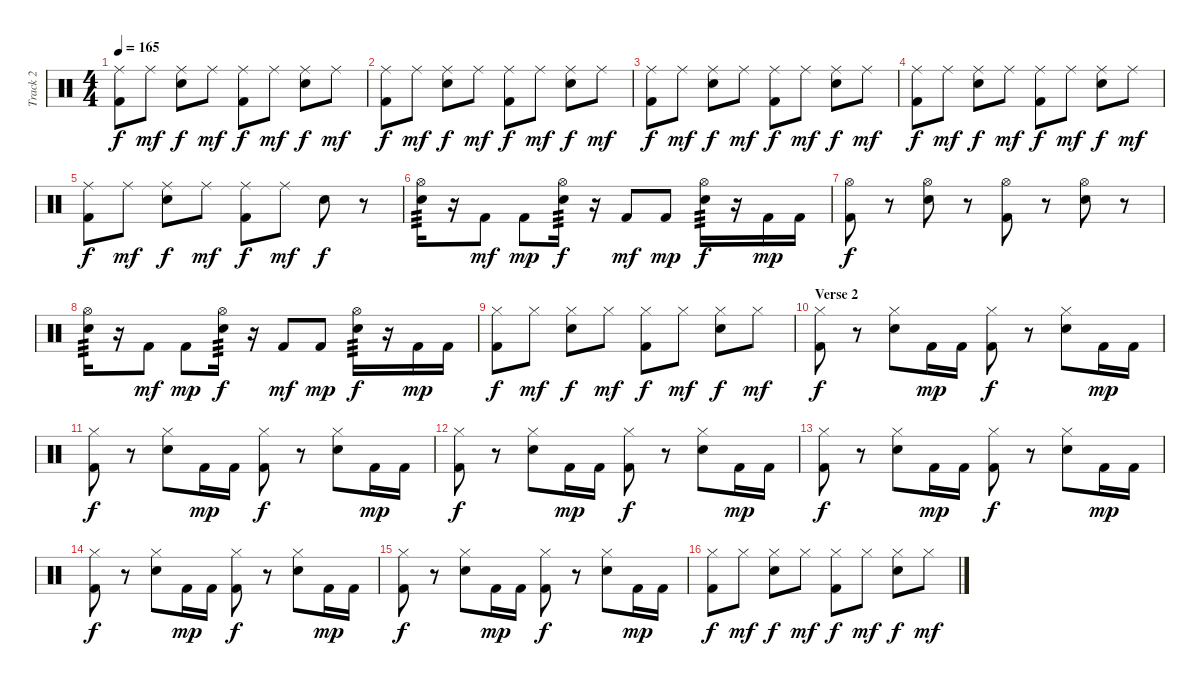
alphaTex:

\track ("Track 2" "Track 2") {instrument percussion}
\staff {score}
\articulation defaults
\ts (4 4)
\tempo 165
\clef neutral
\ks c
("Ride (middle)" "Kick (hit) 2").8{dy f} "Ride (middle)".8{dy mf} ("Ride (middle)" "Electric Snare (hit)").8{dy f} "Ride (middle)".8{dy mf} ("Ride (middle)" "Kick (hit) 2").8{dy f} "Ride (middle)".8{dy mf} ("Ride (middle)" "Electric Snare (hit)").8{dy f} "Ride (middle)".8{dy mf} |
("Ride (middle)" "Kick (hit) 2").8{dy f} "Ride (middle)".8{dy mf} ("Ride (middle)" "Electric Snare (hit)").8{dy f} "Ride (middle)".8{dy mf} ("Ride (middle)" "Kick (hit) 2").8{dy f} "Ride (middle)".8{dy mf} ("Ride (middle)" "Electric Snare (hit)").8{dy f} "Ride (middle)".8{dy mf} |
("Ride (middle)" "Kick (hit) 2").8{dy f} "Ride (middle)".8{dy mf} ("Ride (middle)" "Electric Snare (hit)").8{dy f} "Ride (middle)".8{dy mf} ("Ride (middle)" "Kick (hit) 2").8{dy f} "Ride (middle)".8{dy mf} ("Ride (middle)" "Electric Snare (hit)").8{dy f} "Ride (middle)".8{dy mf} |
("Ride (middle)" "Kick (hit) 2").8{dy f} "Ride (middle)".8{dy mf} ("Ride (middle)" "Electric Snare (hit)").8{dy f} "Ride (middle)".8{dy mf} ("Ride (middle)" "Kick (hit) 2").8{dy f} "Ride (middle)".8{dy mf} ("Ride (middle)" "Electric Snare (hit)").8{dy f} "Ride (middle)".8{dy mf} |
("Ride (middle)" "Kick (hit) 2").8{dy f} "Ride (middle)".8{dy mf} ("Ride (middle)" "Electric Snare (hit)").8{dy f} "Ride (middle)".8{dy mf} ("Ride (middle)" "Kick (hit) 2").8{dy f} "Ride (middle)".8{dy mf} "Electric Snare (hit)".8{dy f} r.8 |
("Hi-Hat (open)" "Electric Snare (hit)").16{tp 3} r.16 "Kick (hit) 2".8{dy mf} "Kick (hit) 2".8{dy mp} ("Hi-Hat (open)" "Electric Snare (hit)").16{tp 3 dy f} r.16 "Kick (hit) 2".8{dy mf} "Kick (hit) 2".8{dy mp} ("Hi-Hat (open)" "Electric Snare (hit)").16{tp 3 dy f} r.16 "Kick (hit) 2".16{dy mp} "Kick (hit) 2".16 |
("Hi-Hat (open)" "Kick (hit) 2").8{dy f} r.8 ("Hi-Hat (open)" "Electric Snare (hit)").8 r.8 ("Hi-Hat (open)" "Kick (hit) 2").8 r.8 ("Hi-Hat (open)" "Electric Snare (hit)").8 r.8 |
("Hi-Hat (open)" "Electric Snare (hit)").16{tp 3} r.16 "Kick (hit) 2".8{dy mf} "Kick (hit) 2".8{dy mp} ("Hi-Hat (open)" "Electric Snare (hit)").16{tp 3 dy f} r.16 "Kick (hit) 2".8{dy mf} "Kick (hit) 2".8{dy mp} ("Hi-Hat (open)" "Electric Snare (hit)").16{tp 3 dy f} r.16 "Kick (hit) 2".16{dy mp} "Kick (hit) 2".16 |
("Hi-Hat (closed)" "Kick (hit) 2").8{dy f} "Hi-Hat (closed)".8{dy mf} ("Hi-Hat (closed)" "Electric Snare (hit)").8{dy f} "Hi-Hat (closed)".8{dy mf} ("Hi-Hat (closed)" "Kick (hit) 2").8{dy f} "Hi-Hat (closed)".8{dy mf} ("Hi-Hat (closed)" "Electric Snare (hit)").8{dy f} "Hi-Hat (closed)".8{dy mf} |
\section ("" "Verse 2")
("Hi-Hat (closed)" "Kick (hit) 2").8{dy f} r.8 ("Hi-Hat (closed)" "Electric Snare (hit)").8 "Kick (hit) 2".16{dy mp} "Kick (hit) 2".16 ("Hi-Hat (closed)" "Kick (hit) 2").8{dy f} r.8 ("Hi-Hat (closed)" "Electric Snare (hit)").8 "Kick (hit) 2".16{dy mp} "Kick (hit) 2".16 |
("Hi-Hat (closed)" "Kick (hit) 2").8{dy f} r.8 ("Hi-Hat (closed)" "Electric Snare (hit)").8 "Kick (hit) 2".16{dy mp} "Kick (hit) 2".16 ("Hi-Hat (closed)" "Kick (hit) 2").8{dy f} r.8 ("Hi-Hat (closed)" "Electric Snare (hit)").8 "Kick (hit) 2".16{dy mp} "Kick (hit) 2".16 |
("Hi-Hat (closed)" "Kick (hit) 2").8{dy f} r.8 ("Hi-Hat (closed)" "Electric Snare (hit)").8 "Kick (hit) 2".16{dy mp} "Kick (hit) 2".16 ("Hi-Hat (closed)" "Kick (hit) 2").8{dy f} r.8 ("Hi-Hat (closed)" "Electric Snare (hit)").8 "Kick (hit) 2".16{dy mp} "Kick (hit) 2".16 |
("Hi-Hat (closed)" "Kick (hit) 2").8{dy f} r.8 ("Hi-Hat (closed)" "Electric Snare (hit)").8 "Kick (hit) 2".16{dy mp} "Kick (hit) 2".16 ("Hi-Hat (closed)" "Kick (hit) 2").8{dy f} r.8 ("Hi-Hat (closed)" "Electric Snare (hit)").8 "Kick (hit) 2".16{dy mp} "Kick (hit) 2".16 |
("Hi-Hat (closed)" "Kick (hit) 2").8{dy f} r.8 ("Hi-Hat (closed)" "Electric Snare (hit)").8 "Kick (hit) 2".16{dy mp} "Kick (hit) 2".16 ("Hi-Hat (closed)" "Kick (hit) 2").8{dy f} r.8 ("Hi-Hat (closed)" "Electric Snare (hit)").8 "Kick (hit) 2".16{dy mp} "Kick (hit) 2".16 |
("Hi-Hat (closed)" "Kick (hit) 2").8{dy f} r.8 ("Hi-Hat (closed)" "Electric Snare (hit)").8 "Kick (hit) 2".16{dy mp} "Kick (hit) 2".16 ("Hi-Hat (closed)" "Kick (hit) 2").8{dy f} r.8 ("Hi-Hat (closed)" "Electric Snare (hit)").8 "Kick (hit) 2".16{dy mp} "Kick (hit) 2".16 |
("Hi-Hat (closed)" "Kick (hit) 2").8{dy f} "Hi-Hat (closed)".8{dy mf} ("Hi-Hat (closed)" "Electric Snare (hit)").8{dy f} "Hi-Hat (closed)".8{dy mf} ("Hi-Hat (closed)" "Kick (hit) 2").8{dy f} "Hi-Hat (closed)".8{dy mf} ("Hi-Hat (closed)" "Electric Snare (hit)").8{dy f} "Hi-Hat (closed)".8{dy mf}
